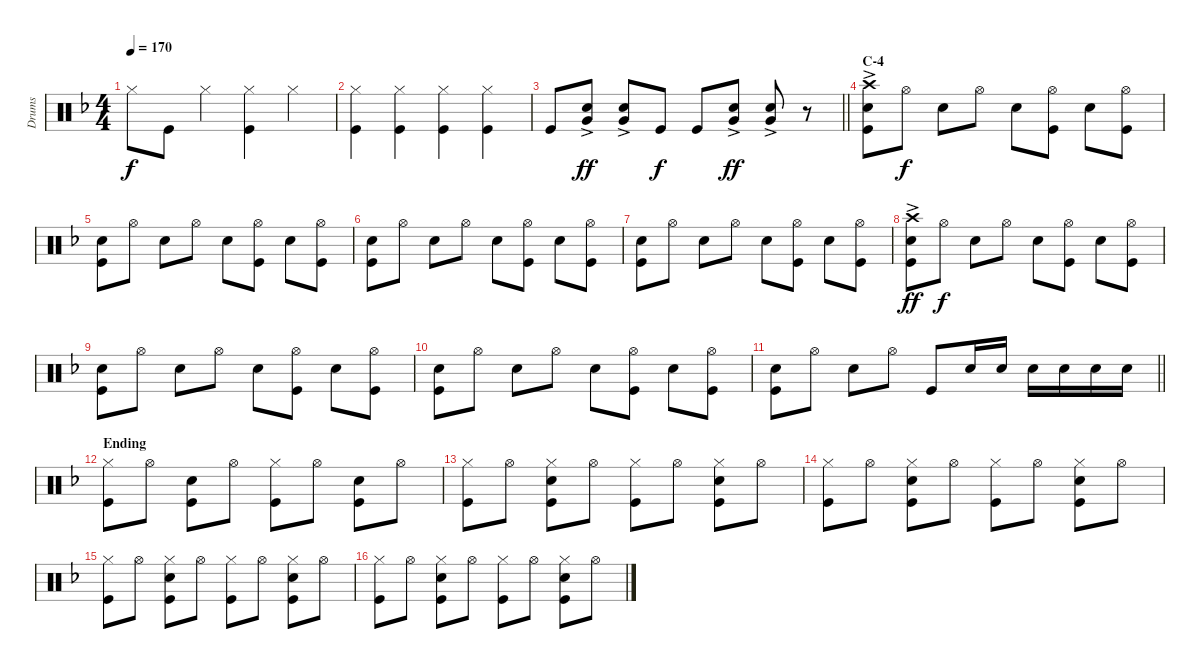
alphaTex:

\track ("Drums" "Drums") {instrument percussion}
\staff {score}
\articulation defaults
\ts (4 4)
\tempo 170
\clef neutral
\ks f "Hi-Hat (closed)".8{dy f} "Kick (hit)".8 "Hi-Hat (closed)".4
("Hi-Hat (closed)" "Kick (hit)").4 "Hi-Hat (closed)".4 |
("Kick (hit)" "Hi-Hat (closed)").4 ("Hi-Hat (closed)" "Kick (hit)").4 ("Kick (hit)" "Hi-Hat (closed)").4 ("Hi-Hat (closed)" "Kick (hit)").4 |
\barLineRight lightlight "Kick (hit)".8
("Snare (hit) 2"{ac} "Very Low Tom (hit)"{ac}).8{dy ff} ("Snare (hit) 2"{ac} "Very Low Tom (hit)"{ac}).8 "Kick (hit)".8{dy f} "Kick (hit)".8 ("Snare (hit) 2"{ac} "Very Low Tom (hit)"{ac}).8{dy ff} ("Snare (hit) 2"{ac} "Very Low Tom (hit)"{ac}).8 r.8 |
\section ("" "C-4")
("Crash high (hit)"{ac} "Kick (hit)" "Snare (hit) 2").8 "Hi-Hat (open)".8{dy f} "Snare (hit) 2".8 "Hi-Hat (open)".8 "Snare (hit) 2".8 ("Hi-Hat (open)" "Kick (hit)").8 "Snare (hit) 2".8 ("Hi-Hat (open)" "Kick (hit)").8 |
("Kick (hit)" "Snare (hit) 2").8 "Hi-Hat (open)".8 "Snare (hit) 2".8 "Hi-Hat (open)".8 "Snare (hit) 2".8 ("Hi-Hat (open)" "Kick (hit)").8 "Snare (hit) 2".8 ("Kick (hit)" "Hi-Hat (open)").8 |
("Kick (hit)" "Snare (hit) 2").8 "Hi-Hat (open)".8 "Snare (hit) 2".8 "Hi-Hat (open)".8 "Snare (hit) 2".8 ("Hi-Hat (open)" "Kick (hit)").8 "Snare (hit) 2".8 ("Kick (hit)" "Hi-Hat (open)").8 |
("Kick (hit)" "Snare (hit) 2").8 "Hi-Hat (open)".8 "Snare (hit) 2".8 "Hi-Hat (open)".8 "Snare (hit) 2".8 ("Hi-Hat (open)" "Kick (hit)").8 "Snare (hit) 2".8 ("Kick (hit)" "Hi-Hat (open)").8 |
("Crash high (hit)"{ac} "Kick (hit)" "Snare (hit) 2").8{dy ff} "Hi-Hat (open)".8{dy f} "Snare (hit) 2".8 "Hi-Hat (open)".8 "Snare (hit) 2".8 ("Hi-Hat (open)" "Kick (hit)").8 "Snare (hit) 2".8 ("Hi-Hat (open)" "Kick (hit)").8 |
("Kick (hit)" "Snare (hit) 2").8 "Hi-Hat (open)".8 "Snare (hit) 2".8 "Hi-Hat (open)".8 "Snare (hit) 2".8 ("Hi-Hat (open)" "Kick (hit)").8 "Snare (hit) 2".8 ("Kick (hit)" "Hi-Hat (open)").8 |
("Kick (hit)" "Snare (hit) 2").8 "Hi-Hat (open)".8 "Snare (hit) 2".8 "Hi-Hat (open)".8 "Snare (hit) 2".8 ("Hi-Hat (open)" "Kick (hit)").8 "Snare (hit) 2".8 ("Kick (hit)" "Hi-Hat (open)").8 |
\barLineRight lightlight
("Kick (hit)" "Snare (hit) 2").8 "Hi-Hat (open)".8 "Snare (hit) 2".8 "Hi-Hat (open)".8 "Kick (hit)".8 "Snare (hit) 2".16 "Snare (hit) 2".16 "Snare (hit) 2".16 "Snare (hit) 2".16 "Snare (hit) 2".16 "Snare (hit) 2".16 |
\section ("" "Ending")
("Hi-Hat (closed)" "Kick (hit)").8 "Hi-Hat (open)".8 ("Snare (hit) 2" "Kick (hit)").8 "Hi-Hat (open)".8 ("Hi-Hat (closed)" "Kick (hit)").8 "Hi-Hat (open)".8 ("Snare (hit) 2" "Kick (hit)").8 "Hi-Hat (open)".8 |
("Hi-Hat (closed)" "Kick (hit)").8 "Hi-Hat (open)".8 ("Snare (hit) 2" "Kick (hit)" "Hi-Hat (closed)").8 "Hi-Hat (open)".8 ("Hi-Hat (closed)" "Kick (hit)").8 "Hi-Hat (open)".8 ("Snare (hit) 2" "Kick (hit)" "Hi-Hat (closed)").8 "Hi-Hat (open)".8 |
("Hi-Hat (closed)" "Kick (hit)").8 "Hi-Hat (open)".8 ("Snare (hit) 2" "Kick (hit)" "Hi-Hat (closed)").8 "Hi-Hat (open)".8 ("Hi-Hat (closed)" "Kick (hit)").8 "Hi-Hat (open)".8 ("Snare (hit) 2" "Kick (hit)" "Hi-Hat (closed)").8 "Hi-Hat (open)".8 |
("Hi-Hat (closed)" "Kick (hit)").8 "Hi-Hat (open)".8 ("Snare (hit) 2" "Kick (hit)" "Hi-Hat (closed)").8 "Hi-Hat (open)".8 ("Hi-Hat (closed)" "Kick (hit)").8 "Hi-Hat (open)".8 ("Snare (hit) 2" "Kick (hit)" "Hi-Hat (closed)").8 "Hi-Hat (open)".8 |
("Hi-Hat (closed)" "Kick (hit)").8 "Hi-Hat (open)".8 ("Snare (hit) 2" "Kick (hit)" "Hi-Hat (closed)").8 "Hi-Hat (open)".8 ("Hi-Hat (closed)" "Kick (hit)").8 "Hi-Hat (open)".8 ("Snare (hit) 2" "Kick (hit)" "Hi-Hat (closed)").8 "Hi-Hat (open)".8
